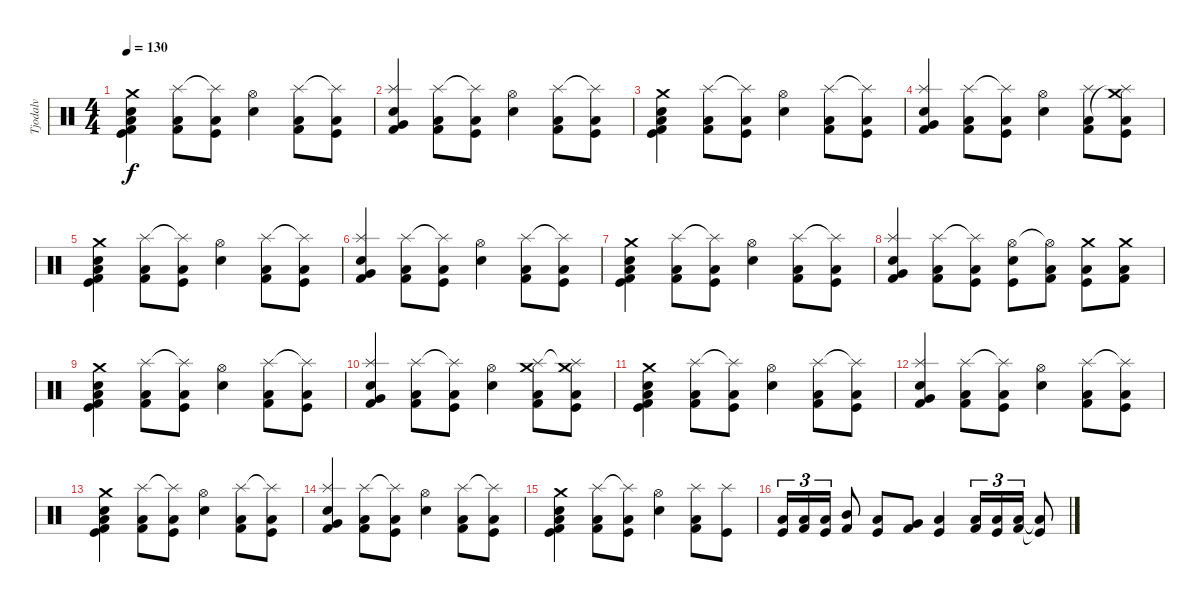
\track ("Tjodalv" "Tjodalv") {instrument percussion}
\staff {score}
\articulation defaults
\ts (4 4)
\tempo 130
\clef neutral
\ks c
("Crash medium (hit)" "Kick (hit) 2" "Kick (hit)" "Snare (hit) 2" "Low Floor Tom (hit)").4{dy f} ("Splash (hit)" "Low Floor Tom (hit)" "Kick (hit) 2").8 ("Splash (hit)"{t} "Low Floor Tom (hit)" "Kick (hit)").8 ("Hi-Hat (open)" "Snare (hit) 2").4 ("Splash (hit)" "Low Floor Tom (hit)" "Kick (hit) 2").8 ("Splash (hit)"{t} "Low Floor Tom (hit)" "Kick (hit)").8 |
("Splash (hit)" "Kick (hit) 2" "Electric Snare (hit)" "Very Low Tom (hit)").4 ("Splash (hit)" "Low Floor Tom (hit)" "Kick (hit) 2").8 ("Splash (hit)"{t} "Low Floor Tom (hit)" "Kick (hit)").8 ("Hi-Hat (open)" "Snare (hit) 2").4 ("Splash (hit)" "Low Floor Tom (hit)" "Kick (hit) 2").8 ("Splash (hit)"{t} "Low Floor Tom (hit)" "Kick (hit)").8 |
("Crash medium (hit)" "Kick (hit) 2" "Kick (hit)" "Snare (hit) 2" "Low Floor Tom (hit)").4 ("Splash (hit)" "Low Floor Tom (hit)" "Kick (hit) 2").8 ("Splash (hit)"{t} "Low Floor Tom (hit)" "Kick (hit)").8 ("Hi-Hat (open)" "Snare (hit) 2").4 ("Splash (hit)" "Low Floor Tom (hit)" "Kick (hit) 2").8 ("Splash (hit)"{t} "Low Floor Tom (hit)" "Kick (hit)").8 |
("Splash (hit)" "Kick (hit) 2" "Electric Snare (hit)" "Very Low Tom (hit)").4 ("Splash (hit)" "Low Floor Tom (hit)" "Kick (hit) 2").8 ("Splash (hit)"{t} "Low Floor Tom (hit)" "Kick (hit)").8 ("Hi-Hat (open)" "Snare (hit) 2").4 ("Splash (hit)" "Low Floor Tom (hit)" "Kick (hit) 2").8 ("Crash medium (hit)" "Splash (hit)"{t} "Low Floor Tom (hit)" "Kick (hit)").8 |
("Crash medium (hit)" "Kick (hit) 2" "Kick (hit)" "Snare (hit) 2" "Low Floor Tom (hit)").4 ("Splash (hit)" "Low Floor Tom (hit)" "Kick (hit) 2").8 ("Splash (hit)"{t} "Low Floor Tom (hit)" "Kick (hit)").8 ("Hi-Hat (open)" "Snare (hit) 2").4 ("Splash (hit)" "Low Floor Tom (hit)" "Kick (hit) 2").8 ("Splash (hit)"{t} "Low Floor Tom (hit)" "Kick (hit)").8 |
("Splash (hit)" "Kick (hit) 2" "Electric Snare (hit)" "Very Low Tom (hit)").4 ("Splash (hit)" "Low Floor Tom (hit)" "Kick (hit) 2").8 ("Splash (hit)"{t} "Low Floor Tom (hit)" "Kick (hit)").8 ("Hi-Hat (open)" "Snare (hit) 2").4 ("Splash (hit)" "Low Floor Tom (hit)" "Kick (hit) 2").8 ("Splash (hit)"{t} "Low Floor Tom (hit)" "Kick (hit)").8 |
("Crash medium (hit)" "Kick (hit) 2" "Kick (hit)" "Snare (hit) 2" "Low Floor Tom (hit)").4 ("Splash (hit)" "Low Floor Tom (hit)" "Kick (hit) 2").8 ("Splash (hit)"{t} "Low Floor Tom (hit)" "Kick (hit)").8 ("Hi-Hat (open)" "Snare (hit) 2").4 ("Splash (hit)" "Low Floor Tom (hit)" "Kick (hit) 2").8 ("Splash (hit)"{t} "Low Floor Tom (hit)" "Kick (hit)").8 |
("Splash (hit)" "Kick (hit) 2" "Electric Snare (hit)" "Very Low Tom (hit)").4 ("Splash (hit)" "Low Floor Tom (hit)" "Kick (hit) 2").8 ("Splash (hit)"{t} "Low Floor Tom (hit)" "Kick (hit)").8 ("Hi-Hat (open)" "Snare (hit) 2" "Kick (hit)").8 ("Hi-Hat (open)"{t} "Low Floor Tom (hit)" "Kick (hit) 2").8 ("Crash medium (hit)" "Low Floor Tom (hit)" "Kick (hit)").8 ("Crash medium (hit)" "Low Floor Tom (hit)" "Kick (hit) 2").8 |
("Crash medium (hit)" "Kick (hit) 2" "Kick (hit)" "Snare (hit) 2" "Low Floor Tom (hit)").4 ("Splash (hit)" "Low Floor Tom (hit)" "Kick (hit) 2").8 ("Splash (hit)"{t} "Low Floor Tom (hit)" "Kick (hit)").8 ("Hi-Hat (open)" "Snare (hit) 2").4 ("Splash (hit)" "Low Floor Tom (hit)" "Kick (hit) 2").8 ("Splash (hit)"{t} "Low Floor Tom (hit)" "Kick (hit)").8 |
("Splash (hit)" "Kick (hit) 2" "Electric Snare (hit)" "Very Low Tom (hit)").4 ("Splash (hit)" "Low Floor Tom (hit)" "Kick (hit) 2").8 ("Splash (hit)"{t} "Low Floor Tom (hit)" "Kick (hit)").8 ("Hi-Hat (open)" "Snare (hit) 2").4 ("Crash medium (hit)" "Splash (hit)" "Low Floor Tom (hit)" "Kick (hit) 2").8 ("Crash medium (hit)" "Splash (hit)"{t} "Low Floor Tom (hit)" "Kick (hit)").8 |
("Crash medium (hit)" "Kick (hit) 2" "Kick (hit)" "Snare (hit) 2" "Low Floor Tom (hit)").4 ("Splash (hit)" "Low Floor Tom (hit)" "Kick (hit) 2").8 ("Splash (hit)"{t} "Low Floor Tom (hit)" "Kick (hit)").8 ("Hi-Hat (open)" "Snare (hit) 2").4 ("Splash (hit)" "Low Floor Tom (hit)" "Kick (hit) 2").8 ("Splash (hit)"{t} "Low Floor Tom (hit)" "Kick (hit)").8 |
("Splash (hit)" "Kick (hit) 2" "Electric Snare (hit)" "Very Low Tom (hit)").4 ("Splash (hit)" "Low Floor Tom (hit)" "Kick (hit) 2").8 ("Splash (hit)"{t} "Low Floor Tom (hit)" "Kick (hit)").8 ("Hi-Hat (open)" "Snare (hit) 2").4 ("Splash (hit)" "Low Floor Tom (hit)" "Kick (hit) 2").8 ("Splash (hit)"{t} "Low Floor Tom (hit)" "Kick (hit)").8 |
("Crash medium (hit)" "Kick (hit) 2" "Kick (hit)" "Snare (hit) 2" "Low Floor Tom (hit)").4 ("Splash (hit)" "Low Floor Tom (hit)" "Kick (hit) 2").8 ("Splash (hit)"{t} "Low Floor Tom (hit)" "Kick (hit)").8 ("Hi-Hat (open)" "Snare (hit) 2").4 ("Splash (hit)" "Low Floor Tom (hit)" "Kick (hit) 2").8 ("Splash (hit)"{t} "Low Floor Tom (hit)" "Kick (hit)").8 |
("Splash (hit)" "Kick (hit) 2" "Electric Snare (hit)" "Very Low Tom (hit)").4 ("Splash (hit)" "Low Floor Tom (hit)" "Kick (hit) 2").8 ("Splash (hit)"{t} "Low Floor Tom (hit)" "Kick (hit)").8 ("Hi-Hat (open)" "Snare (hit) 2").4 ("Splash (hit)" "Low Floor Tom (hit)" "Kick (hit) 2").8 ("Splash (hit)"{t} "Low Floor Tom (hit)" "Kick (hit)").8 |
("Crash medium (hit)" "Kick (hit) 2" "Kick (hit)" "Snare (hit) 2" "Low Floor Tom (hit)").4 ("Splash (hit)" "Low Floor Tom (hit)" "Kick (hit) 2").8 ("Splash (hit)"{t} "Low Floor Tom (hit)" "Kick (hit)").8 ("Hi-Hat (open)" "Snare (hit) 2").4 ("Splash (hit)" "Low Floor Tom (hit)" "Kick (hit) 2").8 ("Splash (hit)" "Kick (hit)").8 |
("Low Floor Tom (hit)" "Kick (hit)").16{tu (3 2)} ("Low Floor Tom (hit)" "Kick (hit) 2").16{tu (3 2)} ("Low Floor Tom (hit)" "Kick (hit)").16{tu (3 2)} ("Mid Tom (hit)" "Kick (hit) 2").8 ("Low Tom (hit)" "Kick (hit)").8 ("Very Low Tom (hit)" "Kick (hit) 2").8 ("Low Floor Tom (hit)" "Kick (hit)").4 ("Low Floor Tom (hit)" "Kick (hit) 2").16{tu (3 2)} ("Low Floor Tom (hit)" "Kick (hit)").16{tu (3 2)} ("Low Floor Tom (hit)" "Kick (hit) 2").16{tu (3 2)} ("Low Floor Tom (hit)"{t} "Kick (hit)"{t}).8
